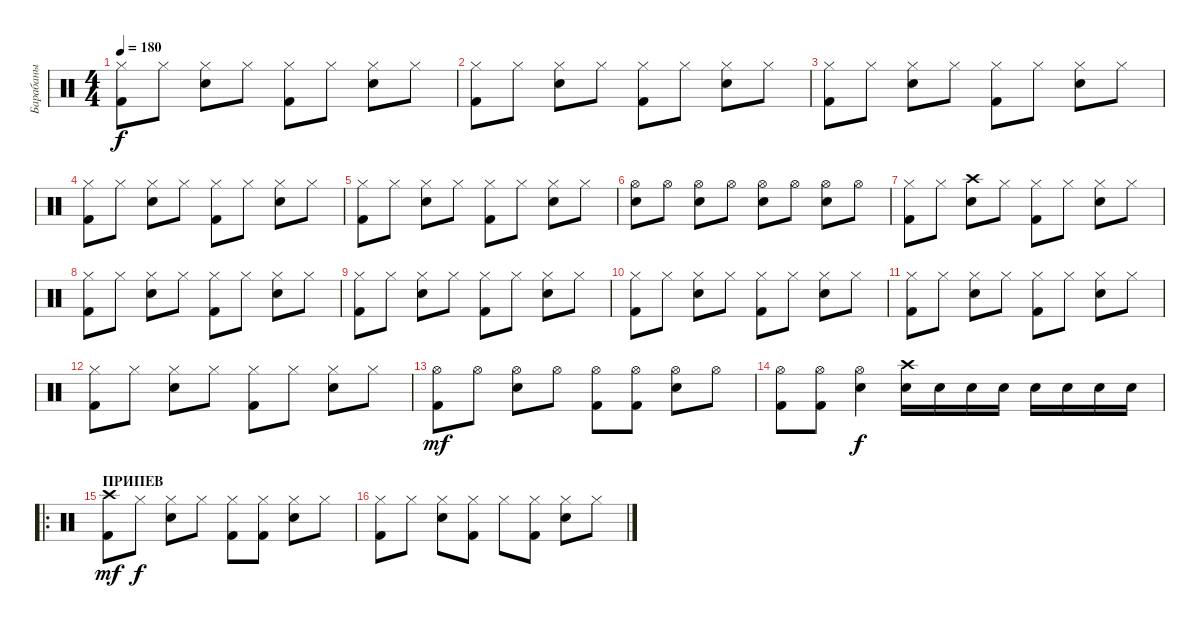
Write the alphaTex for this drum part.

\track ("Барабаны" "Барабаны") {instrument percussion}
\staff {score}
\articulation defaults
\ts (4 4)
\tempo 180
\clef neutral
\ks c
("Hi-Hat (closed)" "Kick (hit) 2").8{dy f} "Hi-Hat (closed)".8 ("Hi-Hat (closed)" "Snare (hit) 2").8 "Hi-Hat (closed)".8 ("Hi-Hat (closed)" "Kick (hit) 2").8 "Hi-Hat (closed)".8 ("Hi-Hat (closed)" "Snare (hit) 2").8 "Hi-Hat (closed)".8 |
("Hi-Hat (closed)" "Kick (hit) 2").8 "Hi-Hat (closed)".8 ("Hi-Hat (closed)" "Snare (hit) 2").8 "Hi-Hat (closed)".8 ("Hi-Hat (closed)" "Kick (hit) 2").8 "Hi-Hat (closed)".8 ("Hi-Hat (closed)" "Snare (hit) 2").8 "Hi-Hat (closed)".8 |
("Hi-Hat (closed)" "Kick (hit) 2").8 "Hi-Hat (closed)".8 ("Hi-Hat (closed)" "Snare (hit) 2").8 "Hi-Hat (closed)".8 ("Hi-Hat (closed)" "Kick (hit) 2").8 "Hi-Hat (closed)".8 ("Hi-Hat (closed)" "Snare (hit) 2").8 "Hi-Hat (closed)".8 |
("Hi-Hat (closed)" "Kick (hit) 2").8 "Hi-Hat (closed)".8 ("Hi-Hat (closed)" "Snare (hit) 2").8 "Hi-Hat (closed)".8 ("Hi-Hat (closed)" "Kick (hit) 2").8 "Hi-Hat (closed)".8 ("Hi-Hat (closed)" "Snare (hit) 2").8 "Hi-Hat (closed)".8 |
("Hi-Hat (closed)" "Kick (hit) 2").8 "Hi-Hat (closed)".8 ("Hi-Hat (closed)" "Snare (hit) 2").8 "Hi-Hat (closed)".8 ("Hi-Hat (closed)" "Kick (hit) 2").8 "Hi-Hat (closed)".8 ("Hi-Hat (closed)" "Snare (hit) 2").8 "Hi-Hat (closed)".8 |
("Hi-Hat (open)" "Snare (hit) 2").8 "Hi-Hat (open)".8 ("Hi-Hat (open)" "Snare (hit) 2").8 "Hi-Hat (open)".8 ("Hi-Hat (open)" "Snare (hit) 2").8 "Hi-Hat (open)".8 ("Hi-Hat (open)" "Snare (hit) 2").8 "Hi-Hat (open)".8 |
("Hi-Hat (closed)" "Kick (hit) 2").8 "Hi-Hat (closed)".8 ("Crash high (hit)" "Snare (hit) 2").8 "Hi-Hat (closed)".8 ("Hi-Hat (closed)" "Kick (hit) 2").8 "Hi-Hat (closed)".8 ("Hi-Hat (closed)" "Snare (hit) 2").8 "Hi-Hat (closed)".8 |
("Hi-Hat (closed)" "Kick (hit) 2").8 "Hi-Hat (closed)".8 ("Hi-Hat (closed)" "Snare (hit) 2").8 "Hi-Hat (closed)".8 ("Hi-Hat (closed)" "Kick (hit) 2").8 "Hi-Hat (closed)".8 ("Hi-Hat (closed)" "Snare (hit) 2").8 "Hi-Hat (closed)".8 |
("Hi-Hat (closed)" "Kick (hit) 2").8 "Hi-Hat (closed)".8 ("Hi-Hat (closed)" "Snare (hit) 2").8 "Hi-Hat (closed)".8 ("Hi-Hat (closed)" "Kick (hit) 2").8 "Hi-Hat (closed)".8 ("Hi-Hat (closed)" "Snare (hit) 2").8 "Hi-Hat (closed)".8 |
("Hi-Hat (closed)" "Kick (hit) 2").8 "Hi-Hat (closed)".8 ("Hi-Hat (closed)" "Snare (hit) 2").8 "Hi-Hat (closed)".8 ("Hi-Hat (closed)" "Kick (hit) 2").8 "Hi-Hat (closed)".8 ("Hi-Hat (closed)" "Snare (hit) 2").8 "Hi-Hat (closed)".8 |
("Hi-Hat (closed)" "Kick (hit) 2").8 "Hi-Hat (closed)".8 ("Hi-Hat (closed)" "Snare (hit) 2").8 "Hi-Hat (closed)".8 ("Hi-Hat (closed)" "Kick (hit) 2").8 "Hi-Hat (closed)".8 ("Hi-Hat (closed)" "Snare (hit) 2").8 "Hi-Hat (closed)".8 |
("Hi-Hat (closed)" "Kick (hit) 2").8 "Hi-Hat (closed)".8 ("Hi-Hat (closed)" "Snare (hit) 2").8 "Hi-Hat (closed)".8 ("Hi-Hat (closed)" "Kick (hit) 2").8 "Hi-Hat (closed)".8 ("Hi-Hat (closed)" "Snare (hit) 2").8 "Hi-Hat (closed)".8 |
("Hi-Hat (open)" "Kick (hit) 2").8{dy mf} "Hi-Hat (open)".8 ("Hi-Hat (open)" "Snare (hit) 2").8 "Hi-Hat (open)".8 ("Hi-Hat (open)" "Kick (hit) 2").8 ("Hi-Hat (open)" "Kick (hit) 2").8 ("Hi-Hat (open)" "Snare (hit) 2").8 "Hi-Hat (open)".8 |
("Hi-Hat (open)" "Kick (hit) 2").8 ("Hi-Hat (open)" "Kick (hit) 2").8 ("Hi-Hat (open)" "Snare (hit) 2").4{dy f} ("Crash high (hit)" "Snare (hit) 2").16 "Snare (hit) 2".16 "Snare (hit) 2".16 "Snare (hit) 2".16 "Snare (hit) 2".16 "Snare (hit) 2".16 "Snare (hit) 2".16 "Snare (hit) 2".16 |
\ro
\section ("" "ПРИПЕВ")
("Crash high (hit)" "Kick (hit) 2").8{dy mf} "Hi-Hat (closed)".8{dy f} ("Hi-Hat (closed)" "Snare (hit) 2").8 "Hi-Hat (closed)".8 ("Hi-Hat (closed)" "Kick (hit) 2").8 ("Hi-Hat (closed)" "Kick (hit) 2").8 ("Hi-Hat (closed)" "Snare (hit) 2").8 "Hi-Hat (closed)".8 |
("Hi-Hat (closed)" "Kick (hit) 2").8 "Hi-Hat (closed)".8 ("Hi-Hat (closed)" "Snare (hit) 2").8 ("Hi-Hat (closed)" "Kick (hit) 2").8 "Hi-Hat (closed)".8 ("Hi-Hat (closed)" "Kick (hit) 2").8 ("Hi-Hat (closed)" "Snare (hit) 2").8 "Hi-Hat (closed)".8
